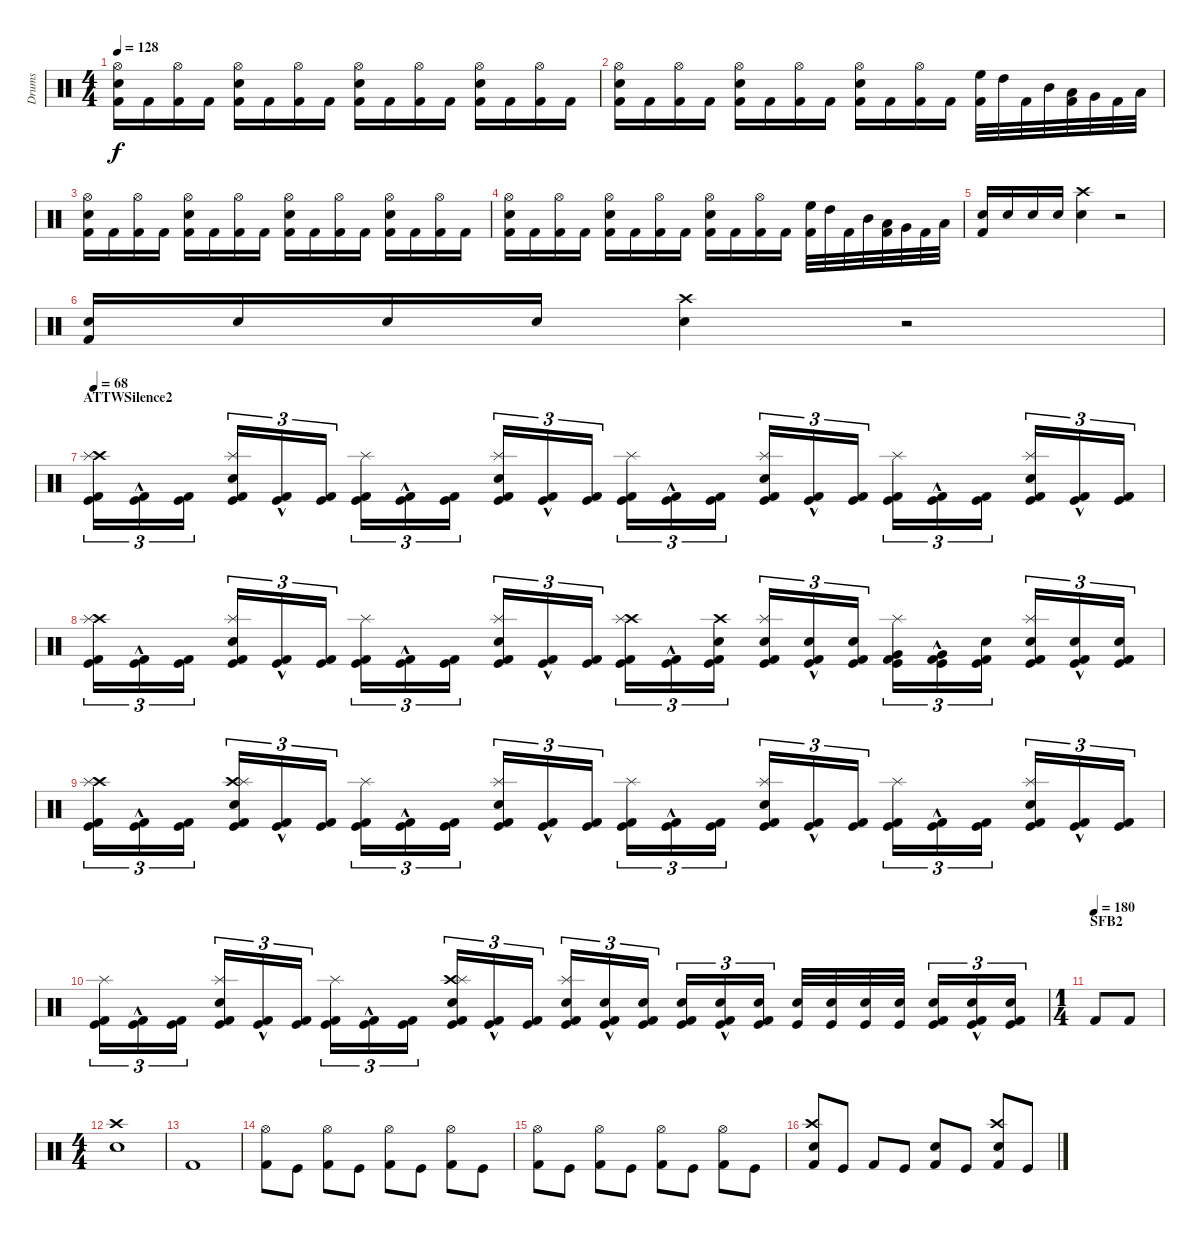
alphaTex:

\track ("Drums" "Drums") {instrument percussion}
\staff {score}
\articulation defaults
\ts (4 4)
\tempo 128
\clef neutral
\ks c
("Kick (hit) 2" "Electric Snare (hit)" "Hi-Hat (open)").16{dy f} "Kick (hit) 2".16 ("Kick (hit) 2" "Hi-Hat (open)").16 "Kick (hit) 2".16 ("Kick (hit) 2" "Electric Snare (hit)" "Hi-Hat (open)").16 "Kick (hit) 2".16 ("Kick (hit) 2" "Hi-Hat (open)").16 "Kick (hit) 2".16 ("Kick (hit) 2" "Electric Snare (hit)" "Hi-Hat (open)").16 "Kick (hit) 2".16 ("Kick (hit) 2" "Hi-Hat (open)").16 "Kick (hit) 2".16 ("Kick (hit) 2" "Electric Snare (hit)" "Hi-Hat (open)").16 "Kick (hit) 2".16 ("Kick (hit) 2" "Hi-Hat (open)").16 "Kick (hit) 2".16 |
("Kick (hit) 2" "Electric Snare (hit)" "Hi-Hat (open)").16 "Kick (hit) 2".16 ("Kick (hit) 2" "Hi-Hat (open)").16 "Kick (hit) 2".16 ("Kick (hit) 2" "Electric Snare (hit)" "Hi-Hat (open)").16 "Kick (hit) 2".16 ("Kick (hit) 2" "Hi-Hat (open)").16 "Kick (hit) 2".16 ("Kick (hit) 2" "Electric Snare (hit)" "Hi-Hat (open)").16 "Kick (hit) 2".16 ("Kick (hit) 2" "Hi-Hat (open)").16 "Kick (hit) 2".16 ("Kick (hit) 2" "High Floor Tom (hit)").32 "High Tom (hit)".32 "Kick (hit) 2".32 "Mid Tom (hit)".32 ("Kick (hit) 2" "Low Tom (hit)").32 "Very Low Tom (hit)".32 "Kick (hit) 2".32 "Low Floor Tom (hit)".32 |
("Kick (hit) 2" "Electric Snare (hit)" "Hi-Hat (open)").16 "Kick (hit) 2".16 ("Kick (hit) 2" "Hi-Hat (open)").16 "Kick (hit) 2".16 ("Kick (hit) 2" "Electric Snare (hit)" "Hi-Hat (open)").16 "Kick (hit) 2".16 ("Kick (hit) 2" "Hi-Hat (open)").16 "Kick (hit) 2".16 ("Kick (hit) 2" "Electric Snare (hit)" "Hi-Hat (open)").16 "Kick (hit) 2".16 ("Kick (hit) 2" "Hi-Hat (open)").16 "Kick (hit) 2".16 ("Kick (hit) 2" "Electric Snare (hit)" "Hi-Hat (open)").16 "Kick (hit) 2".16 ("Kick (hit) 2" "Hi-Hat (open)").16 "Kick (hit) 2".16 |
("Kick (hit) 2" "Electric Snare (hit)" "Hi-Hat (open)").16 "Kick (hit) 2".16 ("Kick (hit) 2" "Hi-Hat (open)").16 "Kick (hit) 2".16 ("Kick (hit) 2" "Electric Snare (hit)" "Hi-Hat (open)").16 "Kick (hit) 2".16 ("Kick (hit) 2" "Hi-Hat (open)").16 "Kick (hit) 2".16 ("Kick (hit) 2" "Electric Snare (hit)" "Hi-Hat (open)").16 "Kick (hit) 2".16 ("Kick (hit) 2" "Hi-Hat (open)").16 "Kick (hit) 2".16 ("Kick (hit) 2" "High Floor Tom (hit)").32 "High Tom (hit)".32 "Kick (hit) 2".32 "Mid Tom (hit)".32 ("Kick (hit) 2" "Low Tom (hit)").32 "Very Low Tom (hit)".32 "Kick (hit) 2".32 "Low Floor Tom (hit)".32 |
("Kick (hit) 2" "Electric Snare (hit)").16 "Electric Snare (hit)".16 "Electric Snare (hit)".16 "Electric Snare (hit)".16 ("Electric Snare (hit)" "Crash high (hit)").4 r.2 |
("Kick (hit) 2" "Electric Snare (hit)").16 "Electric Snare (hit)".16 "Electric Snare (hit)".16 "Electric Snare (hit)".16 ("Electric Snare (hit)" "Crash high (hit)").4 r.2 |
\section ("" "ATTWSilence2")
\tempo 68
("Kick (hit)" "Kick (hit) 2" "Crash high (hit)" "Splash (hit)").16{tu (3 2)} ("Kick (hit)"{hac} "Kick (hit) 2"{hac}).16{tu (3 2)} ("Kick (hit)" "Kick (hit) 2").16{tu (3 2)} ("Kick (hit)" "Kick (hit) 2" "Snare (hit) 2" "Splash (hit)").16{tu (3 2)} ("Kick (hit)"{hac} "Kick (hit) 2"{hac}).16{tu (3 2)} ("Kick (hit)" "Kick (hit) 2").16{tu (3 2)} ("Kick (hit)" "Kick (hit) 2" "Splash (hit)").16{tu (3 2)} ("Kick (hit)"{hac} "Kick (hit) 2"{hac}).16{tu (3 2)} ("Kick (hit)" "Kick (hit) 2").16{tu (3 2)} ("Kick (hit)" "Kick (hit) 2" "Snare (hit) 2" "Splash (hit)").16{tu (3 2)} ("Kick (hit)"{hac} "Kick (hit) 2"{hac}).16{tu (3 2)} ("Kick (hit)" "Kick (hit) 2").16{tu (3 2)} ("Kick (hit)" "Kick (hit) 2" "Splash (hit)").16{tu (3 2)} ("Kick (hit)"{hac} "Kick (hit) 2"{hac}).16{tu (3 2)} ("Kick (hit)" "Kick (hit) 2").16{tu (3 2)} ("Kick (hit)" "Kick (hit) 2" "Snare (hit) 2" "Splash (hit)").16{tu (3 2)} ("Kick (hit)"{hac} "Kick (hit) 2"{hac}).16{tu (3 2)} ("Kick (hit)" "Kick (hit) 2").16{tu (3 2)} ("Kick (hit)" "Kick (hit) 2" "Splash (hit)").16{tu (3 2)} ("Kick (hit)"{hac} "Kick (hit) 2"{hac}).16{tu (3 2)} ("Kick (hit)" "Kick (hit) 2").16{tu (3 2)} ("Kick (hit)" "Kick (hit) 2" "Snare (hit) 2" "Splash (hit)").16{tu (3 2)} ("Kick (hit)"{hac} "Kick (hit) 2"{hac}).16{tu (3 2)} ("Kick (hit)" "Kick (hit) 2").16{tu (3 2)} |
("Kick (hit)" "Kick (hit) 2" "Crash high (hit)" "Splash (hit)").16{tu (3 2)} ("Kick (hit)"{hac} "Kick (hit) 2"{hac}).16{tu (3 2)} ("Kick (hit)" "Kick (hit) 2").16{tu (3 2)} ("Kick (hit)" "Kick (hit) 2" "Snare (hit) 2" "Splash (hit)").16{tu (3 2)} ("Kick (hit)"{hac} "Kick (hit) 2"{hac}).16{tu (3 2)} ("Kick (hit)" "Kick (hit) 2").16{tu (3 2)} ("Kick (hit)" "Kick (hit) 2" "Splash (hit)").16{tu (3 2)} ("Kick (hit)"{hac} "Kick (hit) 2"{hac}).16{tu (3 2)} ("Kick (hit)" "Kick (hit) 2").16{tu (3 2)} ("Kick (hit)" "Kick (hit) 2" "Snare (hit) 2" "Splash (hit)").16{tu (3 2)} ("Kick (hit)"{hac} "Kick (hit) 2"{hac}).16{tu (3 2)} ("Kick (hit)" "Kick (hit) 2").16{tu (3 2)} ("Kick (hit)" "Kick (hit) 2" "Crash high (hit)" "Splash (hit)").16{tu (3 2)} ("Kick (hit)"{hac} "Kick (hit) 2"{hac}).16{tu (3 2)} ("Kick (hit)" "Kick (hit) 2" "Snare (hit) 2" "Crash high (hit)").16{tu (3 2)} ("Kick (hit)" "Kick (hit) 2" "Snare (hit) 2" "Splash (hit)").16{tu (3 2)} ("Kick (hit)"{hac} "Kick (hit) 2"{hac} "Snare (hit) 2"{hac}).16{tu (3 2)} ("Kick (hit)" "Kick (hit) 2" "Snare (hit) 2").16{tu (3 2)} ("Kick (hit)" "Kick (hit) 2" "Very Low Tom (hit)" "Splash (hit)").16{tu (3 2)} ("Kick (hit)"{hac} "Kick (hit) 2"{hac} "Very Low Tom (hit)"{hac}).16{tu (3 2)} ("Kick (hit)" "Kick (hit) 2" "Snare (hit) 2").16{tu (3 2)} ("Kick (hit)" "Kick (hit) 2" "Snare (hit) 2" "Splash (hit)").16{tu (3 2)} ("Kick (hit)"{hac} "Kick (hit) 2"{hac} "Snare (hit) 2"{hac}).16{tu (3 2)} ("Kick (hit)" "Kick (hit) 2" "Snare (hit) 2").16{tu (3 2)} |
("Kick (hit)" "Kick (hit) 2" "Crash high (hit)" "Splash (hit)").16{tu (3 2)} ("Kick (hit)"{hac} "Kick (hit) 2"{hac}).16{tu (3 2)} ("Kick (hit)" "Kick (hit) 2").16{tu (3 2)} ("Kick (hit)" "Kick (hit) 2" "Snare (hit) 2" "Crash high (hit)" "Splash (hit)").16{tu (3 2)} ("Kick (hit)"{hac} "Kick (hit) 2"{hac}).16{tu (3 2)} ("Kick (hit)" "Kick (hit) 2").16{tu (3 2)} ("Kick (hit)" "Kick (hit) 2" "Splash (hit)").16{tu (3 2)} ("Kick (hit)"{hac} "Kick (hit) 2"{hac}).16{tu (3 2)} ("Kick (hit)" "Kick (hit) 2").16{tu (3 2)} ("Kick (hit)" "Kick (hit) 2" "Snare (hit) 2" "Splash (hit)").16{tu (3 2)} ("Kick (hit)"{hac} "Kick (hit) 2"{hac}).16{tu (3 2)} ("Kick (hit)" "Kick (hit) 2").16{tu (3 2)} ("Kick (hit)" "Kick (hit) 2" "Splash (hit)").16{tu (3 2)} ("Kick (hit)"{hac} "Kick (hit) 2"{hac}).16{tu (3 2)} ("Kick (hit)" "Kick (hit) 2").16{tu (3 2)} ("Kick (hit)" "Kick (hit) 2" "Snare (hit) 2" "Splash (hit)").16{tu (3 2)} ("Kick (hit)"{hac} "Kick (hit) 2"{hac}).16{tu (3 2)} ("Kick (hit)" "Kick (hit) 2").16{tu (3 2)} ("Kick (hit)" "Kick (hit) 2" "Splash (hit)").16{tu (3 2)} ("Kick (hit)"{hac} "Kick (hit) 2"{hac}).16{tu (3 2)} ("Kick (hit)" "Kick (hit) 2").16{tu (3 2)} ("Kick (hit)" "Kick (hit) 2" "Snare (hit) 2" "Splash (hit)").16{tu (3 2)} ("Kick (hit)"{hac} "Kick (hit) 2"{hac}).16{tu (3 2)} ("Kick (hit)" "Kick (hit) 2").16{tu (3 2)} |
("Kick (hit)" "Kick (hit) 2" "Splash (hit)").16{tu (3 2)} ("Kick (hit)"{hac} "Kick (hit) 2"{hac}).16{tu (3 2)} ("Kick (hit)" "Kick (hit) 2").16{tu (3 2)} ("Kick (hit)" "Kick (hit) 2" "Snare (hit) 2" "Splash (hit)").16{tu (3 2)} ("Kick (hit)"{hac} "Kick (hit) 2"{hac}).16{tu (3 2)} ("Kick (hit)" "Kick (hit) 2").16{tu (3 2)} ("Kick (hit)" "Kick (hit) 2" "Splash (hit)").16{tu (3 2)} ("Kick (hit)"{hac} "Kick (hit) 2"{hac}).16{tu (3 2)} ("Kick (hit)" "Kick (hit) 2").16{tu (3 2)} ("Kick (hit)" "Kick (hit) 2" "Snare (hit) 2" "Crash high (hit)" "Splash (hit)").16{tu (3 2)} ("Kick (hit)"{hac} "Kick (hit) 2"{hac}).16{tu (3 2)} ("Kick (hit)" "Kick (hit) 2").16{tu (3 2)} ("Kick (hit)" "Kick (hit) 2" "Snare (hit) 2" "Splash (hit)").16{tu (3 2)} ("Kick (hit)"{hac} "Kick (hit) 2"{hac} "Snare (hit) 2"{hac}).16{tu (3 2)} ("Kick (hit)" "Kick (hit) 2" "Snare (hit) 2").16{tu (3 2)} ("Kick (hit)" "Kick (hit) 2" "Snare (hit) 2").16{tu (3 2)} ("Kick (hit)"{hac} "Kick (hit) 2"{hac} "Snare (hit) 2"{hac}).16{tu (3 2)} ("Kick (hit)" "Kick (hit) 2" "Snare (hit) 2").16{tu (3 2)} ("Kick (hit)" "Snare (hit) 2").32 ("Kick (hit)" "Snare (hit) 2").32 ("Kick (hit)" "Snare (hit) 2").32 ("Kick (hit)" "Snare (hit) 2").32 ("Kick (hit)" "Kick (hit) 2" "Snare (hit) 2").16{tu (3 2)} ("Kick (hit)"{hac} "Kick (hit) 2"{hac} "Snare (hit) 2"{hac}).16{tu (3 2)} ("Kick (hit)" "Kick (hit) 2" "Snare (hit) 2").16{tu (3 2)} |
\ts (1 4)
\section ("" "SFB2")
\tempo (180)
"Kick (hit) 2".8 "Kick (hit) 2".8 |
\ts (4 4)
("Snare (hit) 2" "Crash high (hit)").1 |
"Kick (hit) 2".1 |
("Kick (hit) 2" "Hi-Hat (open)").8 "Kick (hit)".8 ("Kick (hit) 2" "Hi-Hat (open)").8 "Kick (hit)".8 ("Kick (hit) 2" "Hi-Hat (open)").8 "Kick (hit)".8 ("Kick (hit) 2" "Hi-Hat (open)").8 "Kick (hit)".8 |
("Kick (hit) 2" "Hi-Hat (open)").8 "Kick (hit)".8 ("Kick (hit) 2" "Hi-Hat (open)").8 "Kick (hit)".8 ("Kick (hit) 2" "Hi-Hat (open)").8 "Kick (hit)".8 ("Kick (hit) 2" "Hi-Hat (open)").8 "Kick (hit)".8 |
("Kick (hit) 2" "Crash high (hit)" "Snare (hit) 2").8 "Kick (hit)".8 "Kick (hit) 2".8 "Kick (hit)".8 ("Kick (hit) 2" "Snare (hit) 2").8 "Kick (hit)".8 ("Kick (hit) 2" "Snare (hit) 2" "Crash high (hit)").8 "Kick (hit)".8
